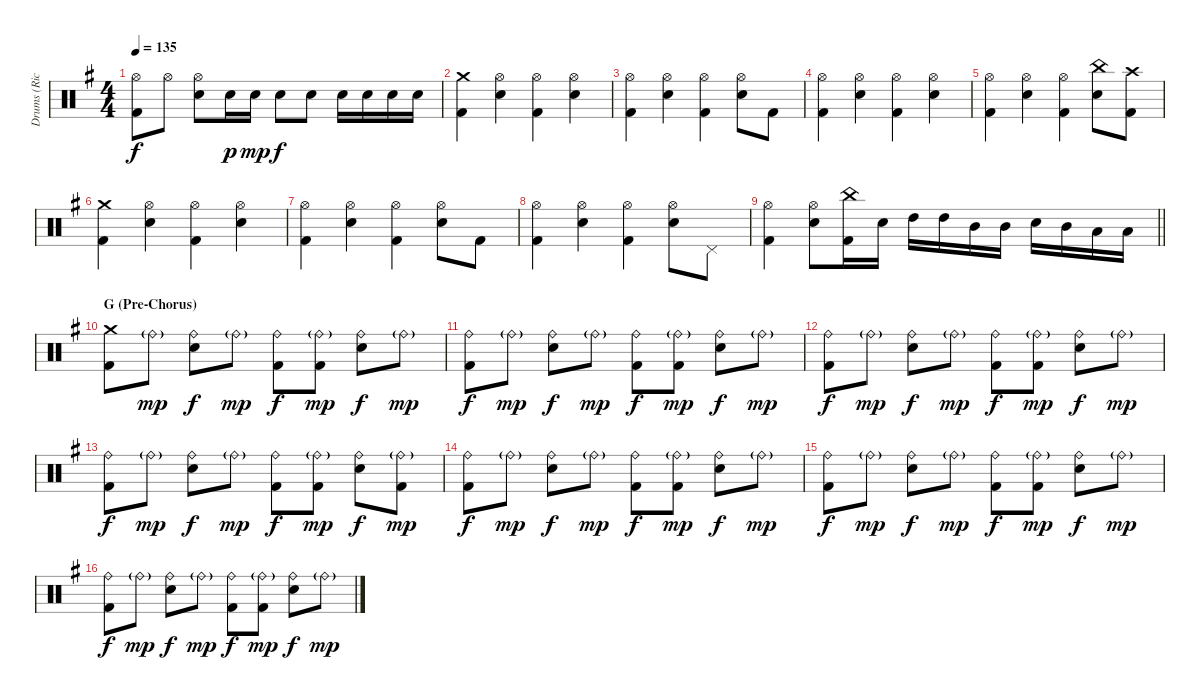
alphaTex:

\track ("Drums (Richard Evensand)" "Drums (Ric") {instrument percussion}
\staff {score}
\articulation defaults
\ts (4 4)
\tempo 135
\clef neutral
\ks eminor
("Hi-Hat (open)" "Kick (hit) 2").8{dy f} "Hi-Hat (open)".8 ("Hi-Hat (open)" "Electric Snare (hit)").8 "Electric Snare (hit)".16{dy p} "Electric Snare (hit)".16{dy mp} "Electric Snare (hit)".8{dy f} "Electric Snare (hit)".8 "Electric Snare (hit)".16 "Electric Snare (hit)".16 "Electric Snare (hit)".16 "Electric Snare (hit)".16 |
("Crash medium (hit)" "Kick (hit) 2").4 ("Hi-Hat (open)" "Electric Snare (hit)").4 ("Hi-Hat (open)" "Kick (hit) 2").4 ("Hi-Hat (open)" "Electric Snare (hit)").4 |
("Hi-Hat (open)" "Kick (hit) 2").4 ("Hi-Hat (open)" "Electric Snare (hit)").4 ("Hi-Hat (open)" "Kick (hit) 2").4 ("Hi-Hat (open)" "Electric Snare (hit)").8 "Kick (hit) 2".8 |
("Hi-Hat (open)" "Kick (hit) 2").4 ("Hi-Hat (open)" "Electric Snare (hit)").4 ("Hi-Hat (open)" "Kick (hit) 2").4 ("Hi-Hat (open)" "Electric Snare (hit)").4 |
("Hi-Hat (open)" "Kick (hit) 2").4 ("Hi-Hat (open)" "Electric Snare (hit)").4 ("Hi-Hat (open)" "Kick (hit) 2").4 ("China (hit)" "Electric Snare (hit)").8 ("Crash high (hit)" "Kick (hit) 2").8 |
("Crash medium (hit)" "Kick (hit) 2").4 ("Hi-Hat (open)" "Electric Snare (hit)").4 ("Hi-Hat (open)" "Kick (hit) 2").4 ("Hi-Hat (open)" "Electric Snare (hit)").4 |
("Hi-Hat (open)" "Kick (hit) 2").4 ("Hi-Hat (open)" "Electric Snare (hit)").4 ("Hi-Hat (open)" "Kick (hit) 2").4 ("Hi-Hat (open)" "Electric Snare (hit)").8 "Kick (hit) 2".8 |
("Hi-Hat (open)" "Kick (hit) 2").4 ("Hi-Hat (open)" "Electric Snare (hit)").4 ("Hi-Hat (open)" "Kick (hit) 2").4 ("Hi-Hat (open)" "Electric Snare (hit)").8 "Pedal Hi-Hat (hit)".8 |
\barLineRight lightlight
("Hi-Hat (open)" "Kick (hit) 2").4 ("Hi-Hat (open)" "Electric Snare (hit)").8 ("China (hit)" "Kick (hit) 2").16 "Electric Snare (hit)".16 "High Tom (hit)".16 "High Tom (hit)".16 "Mid Tom (hit)".16 "Mid Tom (hit)".16 "Electric Snare (hit)".16 "Mid Tom (hit)".16 "Low Tom (hit)".16 "Low Tom (hit)".16 |
\section ("" "G (Pre-Chorus)")
("Crash medium (hit)" "Kick (hit) 2").8 "Ride (bell)"{g}.8{dy mp} ("Ride (bell)" "Electric Snare (hit)").8{dy f} "Ride (bell)"{g}.8{dy mp} ("Ride (bell)" "Kick (hit) 2").8{dy f} ("Ride (bell)"{g} "Kick (hit) 2").8{dy mp} ("Ride (bell)" "Electric Snare (hit)").8{dy f} "Ride (bell)"{g}.8{dy mp} |
("Ride (bell)" "Kick (hit) 2").8{dy f} "Ride (bell)"{g}.8{dy mp} ("Ride (bell)" "Electric Snare (hit)").8{dy f} "Ride (bell)"{g}.8{dy mp} ("Ride (bell)" "Kick (hit) 2").8{dy f} ("Ride (bell)"{g} "Kick (hit) 2").8{dy mp} ("Ride (bell)" "Electric Snare (hit)").8{dy f} "Ride (bell)"{g}.8{dy mp} |
("Ride (bell)" "Kick (hit) 2").8{dy f} "Ride (bell)"{g}.8{dy mp} ("Ride (bell)" "Electric Snare (hit)").8{dy f} "Ride (bell)"{g}.8{dy mp} ("Ride (bell)" "Kick (hit) 2").8{dy f} ("Ride (bell)"{g} "Kick (hit) 2").8{dy mp} ("Ride (bell)" "Electric Snare (hit)").8{dy f} "Ride (bell)"{g}.8{dy mp} |
("Ride (bell)" "Kick (hit) 2").8{dy f} "Ride (bell)"{g}.8{dy mp} ("Ride (bell)" "Electric Snare (hit)").8{dy f} "Ride (bell)"{g}.8{dy mp} ("Ride (bell)" "Kick (hit) 2").8{dy f} ("Ride (bell)"{g} "Kick (hit) 2").8{dy mp} ("Ride (bell)" "Electric Snare (hit)").8{dy f} ("Ride (bell)"{g} "Kick (hit) 2").8{dy mp} |
("Ride (bell)" "Kick (hit) 2").8{dy f} "Ride (bell)"{g}.8{dy mp} ("Ride (bell)" "Electric Snare (hit)").8{dy f} "Ride (bell)"{g}.8{dy mp} ("Ride (bell)" "Kick (hit) 2").8{dy f} ("Ride (bell)"{g} "Kick (hit) 2").8{dy mp} ("Ride (bell)" "Electric Snare (hit)").8{dy f} "Ride (bell)"{g}.8{dy mp} |
("Ride (bell)" "Kick (hit) 2").8{dy f} "Ride (bell)"{g}.8{dy mp} ("Ride (bell)" "Electric Snare (hit)").8{dy f} "Ride (bell)"{g}.8{dy mp} ("Ride (bell)" "Kick (hit) 2").8{dy f} ("Ride (bell)"{g} "Kick (hit) 2").8{dy mp} ("Ride (bell)" "Electric Snare (hit)").8{dy f} "Ride (bell)"{g}.8{dy mp} |
("Ride (bell)" "Kick (hit) 2").8{dy f} "Ride (bell)"{g}.8{dy mp} ("Ride (bell)" "Electric Snare (hit)").8{dy f} "Ride (bell)"{g}.8{dy mp} ("Ride (bell)" "Kick (hit) 2").8{dy f} ("Ride (bell)"{g} "Kick (hit) 2").8{dy mp} ("Ride (bell)" "Electric Snare (hit)").8{dy f} "Ride (bell)"{g}.8{dy mp}
